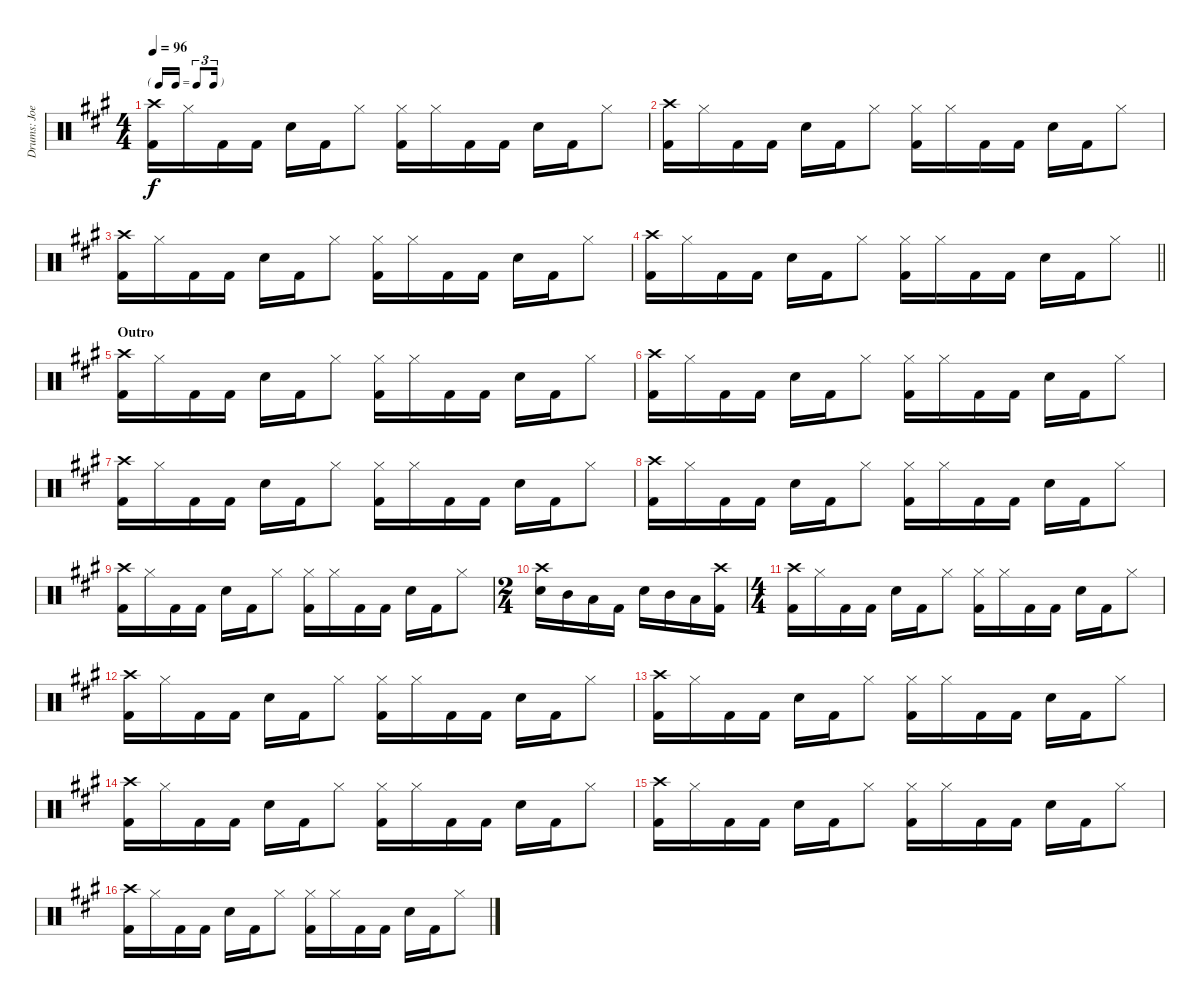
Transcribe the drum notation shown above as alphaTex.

\track ("Drums: Joey" "Drums: Joe") {instrument percussion}
\staff {score}
\articulation defaults
\ts (4 4)
\tf triplet16th
\tempo 96
\clef neutral
\ks a
("Crash high (hit)" "Kick (hit) 2").16{dy f} "Hi-Hat (closed)".16 "Kick (hit) 2".16 "Kick (hit) 2".16 "Electric Snare (hit)".16 "Kick (hit) 2".16 "Hi-Hat (closed)".8 ("Hi-Hat (closed)" "Kick (hit) 2").16 "Hi-Hat (closed)".16 "Kick (hit) 2".16 "Kick (hit) 2".16 "Electric Snare (hit)".16 "Kick (hit) 2".16 "Hi-Hat (closed)".8 |
("Crash high (hit)" "Kick (hit) 2").16 "Hi-Hat (closed)".16 "Kick (hit) 2".16 "Kick (hit) 2".16 "Electric Snare (hit)".16 "Kick (hit) 2".16 "Hi-Hat (closed)".8 ("Hi-Hat (closed)" "Kick (hit) 2").16 "Hi-Hat (closed)".16 "Kick (hit) 2".16 "Kick (hit) 2".16 "Electric Snare (hit)".16 "Kick (hit) 2".16 "Hi-Hat (closed)".8 |
("Crash high (hit)" "Kick (hit) 2").16 "Hi-Hat (closed)".16 "Kick (hit) 2".16 "Kick (hit) 2".16 "Electric Snare (hit)".16 "Kick (hit) 2".16 "Hi-Hat (closed)".8 ("Hi-Hat (closed)" "Kick (hit) 2").16 "Hi-Hat (closed)".16 "Kick (hit) 2".16 "Kick (hit) 2".16 "Electric Snare (hit)".16 "Kick (hit) 2".16 "Hi-Hat (closed)".8 |
\barLineRight lightlight
("Crash high (hit)" "Kick (hit) 2").16 "Hi-Hat (closed)".16 "Kick (hit) 2".16 "Kick (hit) 2".16 "Electric Snare (hit)".16 "Kick (hit) 2".16 "Hi-Hat (closed)".8 ("Hi-Hat (closed)" "Kick (hit) 2").16 "Hi-Hat (closed)".16 "Kick (hit) 2".16 "Kick (hit) 2".16 "Electric Snare (hit)".16 "Kick (hit) 2".16 "Hi-Hat (closed)".8 |
\section ("" "Outro")
("Crash high (hit)" "Kick (hit) 2").16 "Hi-Hat (closed)".16 "Kick (hit) 2".16 "Kick (hit) 2".16 "Electric Snare (hit)".16 "Kick (hit) 2".16 "Hi-Hat (closed)".8 ("Hi-Hat (closed)" "Kick (hit) 2").16 "Hi-Hat (closed)".16 "Kick (hit) 2".16 "Kick (hit) 2".16 "Electric Snare (hit)".16 "Kick (hit) 2".16 "Hi-Hat (closed)".8 |
("Crash high (hit)" "Kick (hit) 2").16 "Hi-Hat (closed)".16 "Kick (hit) 2".16 "Kick (hit) 2".16 "Electric Snare (hit)".16 "Kick (hit) 2".16 "Hi-Hat (closed)".8 ("Hi-Hat (closed)" "Kick (hit) 2").16 "Hi-Hat (closed)".16 "Kick (hit) 2".16 "Kick (hit) 2".16 "Electric Snare (hit)".16 "Kick (hit) 2".16 "Hi-Hat (closed)".8 |
("Crash high (hit)" "Kick (hit) 2").16 "Hi-Hat (closed)".16 "Kick (hit) 2".16 "Kick (hit) 2".16 "Electric Snare (hit)".16 "Kick (hit) 2".16 "Hi-Hat (closed)".8 ("Hi-Hat (closed)" "Kick (hit) 2").16 "Hi-Hat (closed)".16 "Kick (hit) 2".16 "Kick (hit) 2".16 "Electric Snare (hit)".16 "Kick (hit) 2".16 "Hi-Hat (closed)".8 |
("Crash high (hit)" "Kick (hit) 2").16 "Hi-Hat (closed)".16 "Kick (hit) 2".16 "Kick (hit) 2".16 "Electric Snare (hit)".16 "Kick (hit) 2".16 "Hi-Hat (closed)".8 ("Hi-Hat (closed)" "Kick (hit) 2").16 "Hi-Hat (closed)".16 "Kick (hit) 2".16 "Kick (hit) 2".16 "Electric Snare (hit)".16 "Kick (hit) 2".16 "Hi-Hat (closed)".8 |
("Crash high (hit)" "Kick (hit) 2").16 "Hi-Hat (closed)".16 "Kick (hit) 2".16 "Kick (hit) 2".16 "Electric Snare (hit)".16 "Kick (hit) 2".16 "Hi-Hat (closed)".8 ("Hi-Hat (closed)" "Kick (hit) 2").16 "Hi-Hat (closed)".16 "Kick (hit) 2".16 "Kick (hit) 2".16 "Electric Snare (hit)".16 "Kick (hit) 2".16 "Hi-Hat (closed)".8 |
\ts (2 4)
("Crash high (hit)" "Electric Snare (hit)").16 "Mid Tom (hit)".16 "Low Tom (hit)".16 "Kick (hit) 2".16 "Electric Snare (hit)".16 "Mid Tom (hit)".16 "Low Tom (hit)".16 ("Crash high (hit)" "Kick (hit) 2").16 |
\ts (4 4)
("Crash high (hit)" "Kick (hit) 2").16 "Hi-Hat (closed)".16 "Kick (hit) 2".16 "Kick (hit) 2".16 "Electric Snare (hit)".16 "Kick (hit) 2".16 "Hi-Hat (closed)".8 ("Hi-Hat (closed)" "Kick (hit) 2").16 "Hi-Hat (closed)".16 "Kick (hit) 2".16 "Kick (hit) 2".16 "Electric Snare (hit)".16 "Kick (hit) 2".16 "Hi-Hat (closed)".8 |
("Crash high (hit)" "Kick (hit) 2").16 "Hi-Hat (closed)".16 "Kick (hit) 2".16 "Kick (hit) 2".16 "Electric Snare (hit)".16 "Kick (hit) 2".16 "Hi-Hat (closed)".8 ("Hi-Hat (closed)" "Kick (hit) 2").16 "Hi-Hat (closed)".16 "Kick (hit) 2".16 "Kick (hit) 2".16 "Electric Snare (hit)".16 "Kick (hit) 2".16 "Hi-Hat (closed)".8 |
("Crash high (hit)" "Kick (hit) 2").16 "Hi-Hat (closed)".16 "Kick (hit) 2".16 "Kick (hit) 2".16 "Electric Snare (hit)".16 "Kick (hit) 2".16 "Hi-Hat (closed)".8 ("Hi-Hat (closed)" "Kick (hit) 2").16 "Hi-Hat (closed)".16 "Kick (hit) 2".16 "Kick (hit) 2".16 "Electric Snare (hit)".16 "Kick (hit) 2".16 "Hi-Hat (closed)".8 |
("Crash high (hit)" "Kick (hit) 2").16 "Hi-Hat (closed)".16 "Kick (hit) 2".16 "Kick (hit) 2".16 "Electric Snare (hit)".16 "Kick (hit) 2".16 "Hi-Hat (closed)".8 ("Hi-Hat (closed)" "Kick (hit) 2").16 "Hi-Hat (closed)".16 "Kick (hit) 2".16 "Kick (hit) 2".16 "Electric Snare (hit)".16 "Kick (hit) 2".16 "Hi-Hat (closed)".8 |
("Crash high (hit)" "Kick (hit) 2").16 "Hi-Hat (closed)".16 "Kick (hit) 2".16 "Kick (hit) 2".16 "Electric Snare (hit)".16 "Kick (hit) 2".16 "Hi-Hat (closed)".8 ("Hi-Hat (closed)" "Kick (hit) 2").16 "Hi-Hat (closed)".16 "Kick (hit) 2".16 "Kick (hit) 2".16 "Electric Snare (hit)".16 "Kick (hit) 2".16 "Hi-Hat (closed)".8 |
("Crash high (hit)" "Kick (hit) 2").16 "Hi-Hat (closed)".16 "Kick (hit) 2".16 "Kick (hit) 2".16 "Electric Snare (hit)".16 "Kick (hit) 2".16 "Hi-Hat (closed)".8 ("Hi-Hat (closed)" "Kick (hit) 2").16 "Hi-Hat (closed)".16 "Kick (hit) 2".16 "Kick (hit) 2".16 "Electric Snare (hit)".16 "Kick (hit) 2".16 "Hi-Hat (closed)".8
